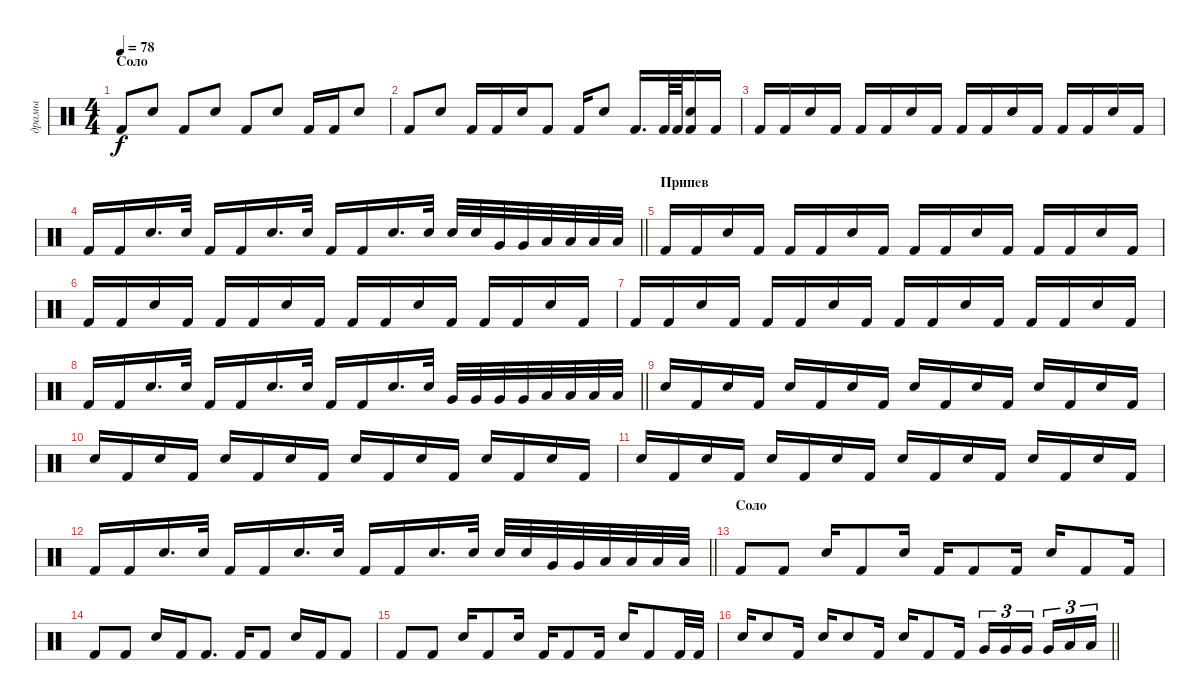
\track ("драмы" "драмы") {instrument percussion}
\staff {score}
\articulation defaults
\ts (4 4)
\section ("" "Соло")
\tempo 78
\clef neutral
\ks c "Kick (hit) 2".8{dy f} "Electric Snare (hit)".8 "Kick (hit) 2".8 "Electric Snare (hit)".8 "Kick (hit) 2".8 "Electric Snare (hit)".8 "Kick (hit) 2".16 "Kick (hit) 2".16 "Electric Snare (hit)".8
|
"Kick (hit) 2".8 "Electric Snare (hit)".8 "Kick (hit) 2".16 "Kick (hit) 2".16 "Electric Snare (hit)".16 "Kick (hit) 2".8 "Kick (hit) 2".16 "Electric Snare (hit)".8 "Kick (hit) 2".16{d} "Kick (hit) 2".64 "Kick (hit) 2".64 ("Electric Snare (hit)" "Kick (hit) 2").16 "Kick (hit) 2".16 |
"Kick (hit) 2".16 "Kick (hit) 2".16 "Electric Snare (hit)".16 "Kick (hit) 2".16 "Kick (hit) 2".16 "Kick (hit) 2".16 "Electric Snare (hit)".16 "Kick (hit) 2".16 "Kick (hit) 2".16 "Kick (hit) 2".16 "Electric Snare (hit)".16 "Kick (hit) 2".16 "Kick (hit) 2".16 "Kick (hit) 2".16 "Electric Snare (hit)".16 "Kick (hit) 2".16 |
\barLineRight lightlight "Kick (hit) 2".16 "Kick (hit) 2".16 "Electric Snare (hit)".16{d} "Electric Snare (hit)".32 "Kick (hit) 2".16 "Kick (hit) 2".16 "Electric Snare (hit)".16{d} "Electric Snare (hit)".32 "Kick (hit) 2".16 "Kick (hit) 2".16 "Electric Snare (hit)".16{d} "Electric Snare (hit)".32 "Electric Snare (hit)".32 "Electric Snare (hit)".32 "Very Low Tom (hit)".32 "Very Low Tom (hit)".32 "Low Tom (hit)".32 "Low Tom (hit)".32 "Low Tom (hit)".32 "Low Tom (hit)".32
|
\section ("" "Припев")
"Kick (hit) 2".16 "Kick (hit) 2".16 "Electric Snare (hit)".16 "Kick (hit) 2".16 "Kick (hit) 2".16 "Kick (hit) 2".16 "Electric Snare (hit)".16 "Kick (hit) 2".16 "Kick (hit) 2".16 "Kick (hit) 2".16 "Electric Snare (hit)".16 "Kick (hit) 2".16 "Kick (hit) 2".16 "Kick (hit) 2".16 "Electric Snare (hit)".16 "Kick (hit) 2".16 |
"Kick (hit) 2".16 "Kick (hit) 2".16 "Electric Snare (hit)".16 "Kick (hit) 2".16 "Kick (hit) 2".16 "Kick (hit) 2".16 "Electric Snare (hit)".16 "Kick (hit) 2".16 "Kick (hit) 2".16 "Kick (hit) 2".16 "Electric Snare (hit)".16 "Kick (hit) 2".16 "Kick (hit) 2".16 "Kick (hit) 2".16 "Electric Snare (hit)".16 "Kick (hit) 2".16 |
"Kick (hit) 2".16 "Kick (hit) 2".16 "Electric Snare (hit)".16 "Kick (hit) 2".16 "Kick (hit) 2".16 "Kick (hit) 2".16 "Electric Snare (hit)".16 "Kick (hit) 2".16 "Kick (hit) 2".16 "Kick (hit) 2".16 "Electric Snare (hit)".16 "Kick (hit) 2".16 "Kick (hit) 2".16 "Kick (hit) 2".16 "Electric Snare (hit)".16 "Kick (hit) 2".16 |
\barLineRight lightlight "Kick (hit) 2".16 "Kick (hit) 2".16 "Electric Snare (hit)".16{d} "Electric Snare (hit)".32 "Kick (hit) 2".16 "Kick (hit) 2".16 "Electric Snare (hit)".16{d} "Electric Snare (hit)".32 "Kick (hit) 2".16 "Kick (hit) 2".16 "Electric Snare (hit)".16{d} "Electric Snare (hit)".32 "Very Low Tom (hit)".32 "Very Low Tom (hit)".32 "Very Low Tom (hit)".32 "Very Low Tom (hit)".32 "Low Tom (hit)".32 "Low Tom (hit)".32 "Low Tom (hit)".32 "Low Tom (hit)".32
|
"Electric Snare (hit)".16 "Kick (hit) 2".16 "Electric Snare (hit)".16 "Kick (hit) 2".16 "Electric Snare (hit)".16 "Kick (hit) 2".16 "Electric Snare (hit)".16 "Kick (hit) 2".16 "Electric Snare (hit)".16 "Kick (hit) 2".16 "Electric Snare (hit)".16 "Kick (hit) 2".16 "Electric Snare (hit)".16 "Kick (hit) 2".16 "Electric Snare (hit)".16 "Kick (hit) 2".16 |
"Electric Snare (hit)".16 "Kick (hit) 2".16 "Electric Snare (hit)".16 "Kick (hit) 2".16 "Electric Snare (hit)".16 "Kick (hit) 2".16 "Electric Snare (hit)".16 "Kick (hit) 2".16 "Electric Snare (hit)".16 "Kick (hit) 2".16 "Electric Snare (hit)".16 "Kick (hit) 2".16 "Electric Snare (hit)".16 "Kick (hit) 2".16 "Electric Snare (hit)".16 "Kick (hit) 2".16 |
"Electric Snare (hit)".16 "Kick (hit) 2".16 "Electric Snare (hit)".16 "Kick (hit) 2".16 "Electric Snare (hit)".16 "Kick (hit) 2".16 "Electric Snare (hit)".16 "Kick (hit) 2".16 "Electric Snare (hit)".16 "Kick (hit) 2".16 "Electric Snare (hit)".16 "Kick (hit) 2".16 "Electric Snare (hit)".16 "Kick (hit) 2".16 "Electric Snare (hit)".16 "Kick (hit) 2".16 |
\barLineRight lightlight "Kick (hit) 2".16 "Kick (hit) 2".16 "Electric Snare (hit)".16{d} "Electric Snare (hit)".32 "Kick (hit) 2".16 "Kick (hit) 2".16 "Electric Snare (hit)".16{d} "Electric Snare (hit)".32 "Kick (hit) 2".16 "Kick (hit) 2".16 "Electric Snare (hit)".16{d} "Electric Snare (hit)".32 "Electric Snare (hit)".32 "Electric Snare (hit)".32 "Very Low Tom (hit)".32 "Very Low Tom (hit)".32 "Low Tom (hit)".32 "Low Tom (hit)".32 "Low Tom (hit)".32 "Low Tom (hit)".32
|
\section ("" "Соло")
"Kick (hit) 2".8 "Kick (hit) 2".8 "Electric Snare (hit)".16 "Kick (hit) 2".8 "Electric Snare (hit)".16 "Kick (hit) 2".16 "Kick (hit) 2".8 "Kick (hit) 2".16 "Electric Snare (hit)".16 "Kick (hit) 2".8 "Kick (hit) 2".16 |
"Kick (hit) 2".8 "Kick (hit) 2".8 "Electric Snare (hit)".16 "Kick (hit) 2".16 "Kick (hit) 2".8{d} "Kick (hit) 2".16 "Kick (hit) 2".8 "Electric Snare (hit)".16 "Kick (hit) 2".16 "Kick (hit) 2".8 |
"Kick (hit) 2".8 "Kick (hit) 2".8 "Electric Snare (hit)".16 "Kick (hit) 2".8 "Electric Snare (hit)".16 "Kick (hit) 2".16 "Kick (hit) 2".8 "Kick (hit) 2".16 "Electric Snare (hit)".16 "Kick (hit) 2".8 "Kick (hit) 2".32 "Kick (hit) 2".32 |
\barLineRight lightlight "Electric Snare (hit)".16 "Electric Snare (hit)".8 "Kick (hit) 2".16 "Electric Snare (hit)".16 "Electric Snare (hit)".8 "Kick (hit) 2".16 "Electric Snare (hit)".16 "Kick (hit) 2".8 "Kick (hit) 2".16 "Very Low Tom (hit)".16{tu (3 2)} "Very Low Tom (hit)".16{tu (3 2)} "Very Low Tom (hit)".16{tu (3 2) beam splitsecondary} "Very Low Tom (hit)".16{tu (3 2)} "Low Tom (hit)".16{tu (3 2)} "Low Tom (hit)".16{tu (3 2)}
